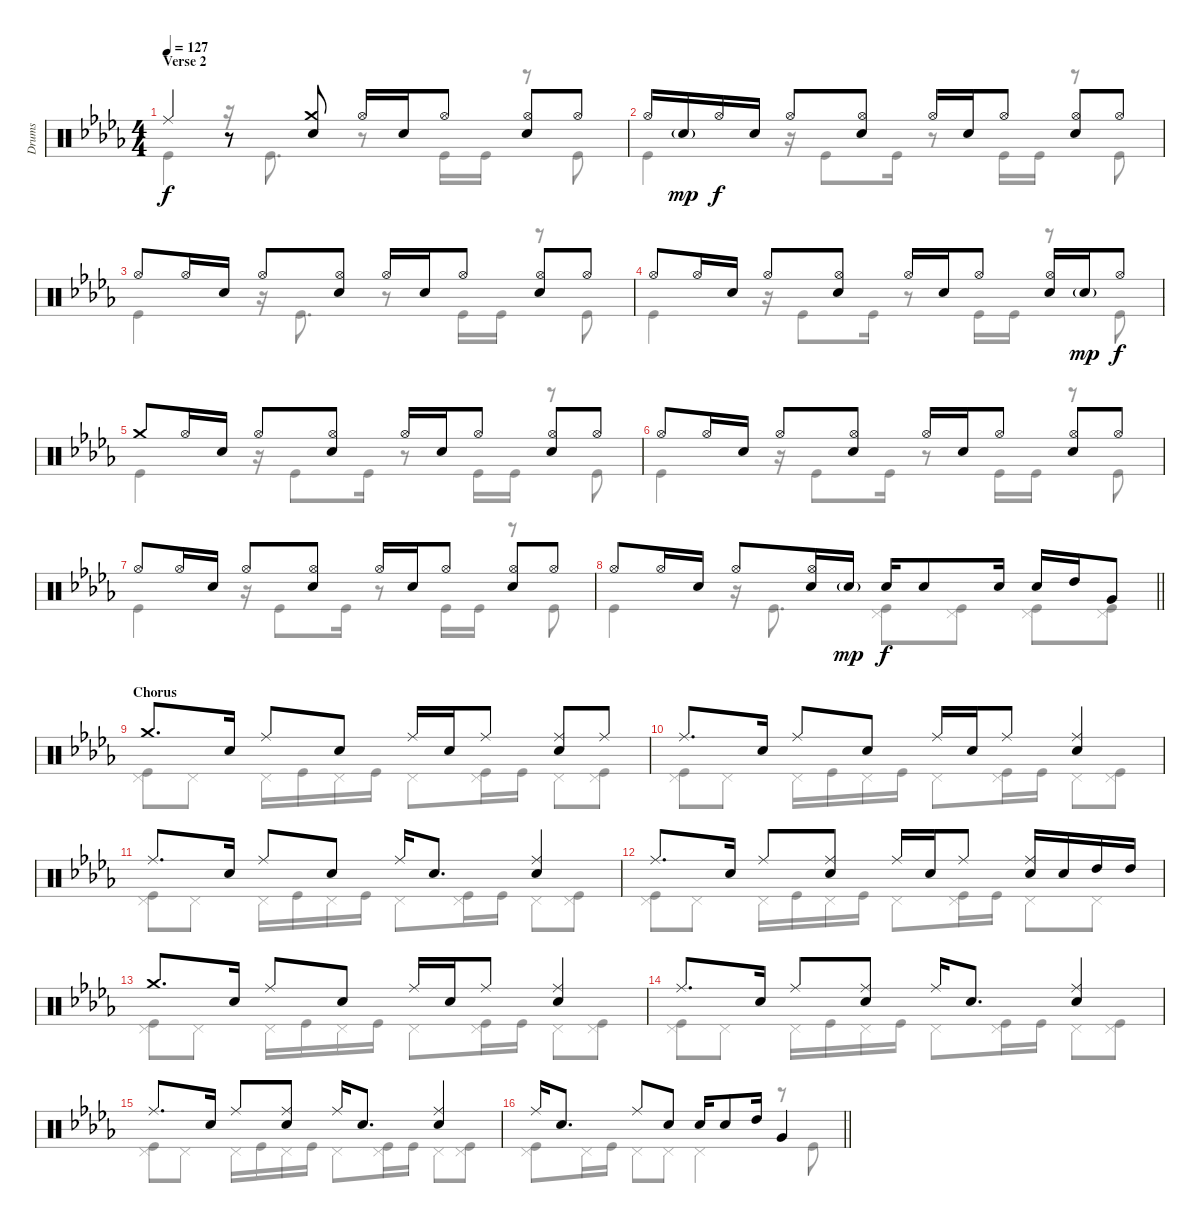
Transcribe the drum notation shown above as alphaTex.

\track ("Drums" "Drums") {instrument percussion}
\staff {score}
\articulation defaults
\voice
\ts (4 4)
\section ("" "Verse 2")
\tempo 127
\clef neutral
\ks bbminor "Ride (middle)".4{dy f}
r.8 ("Crash medium (hit)" "Electric Snare (hit)").8 "Hi-Hat (open)".16 "Electric Snare (hit)".16 "Hi-Hat (open)".8 ("Hi-Hat (open)" "Electric Snare (hit)").8 "Hi-Hat (open)".8 |
"Hi-Hat (open)".16 "Electric Snare (hit)"{g}.16{dy mp} "Hi-Hat (open)".16{dy f} "Electric Snare (hit)".16 "Hi-Hat (open)".8 ("Hi-Hat (open)" "Electric Snare (hit)").8 "Hi-Hat (open)".16 "Electric Snare (hit)".16 "Hi-Hat (open)".8 ("Hi-Hat (open)" "Electric Snare (hit)").8 "Hi-Hat (open)".8 |
"Hi-Hat (open)".8 "Hi-Hat (open)".16 "Electric Snare (hit)".16 "Hi-Hat (open)".8 ("Hi-Hat (open)" "Electric Snare (hit)").8 "Hi-Hat (open)".16 "Electric Snare (hit)".16 "Hi-Hat (open)".8 ("Hi-Hat (open)" "Electric Snare (hit)").8 "Hi-Hat (open)".8 |
"Hi-Hat (open)".8 "Hi-Hat (open)".16 "Electric Snare (hit)".16 "Hi-Hat (open)".8 ("Hi-Hat (open)" "Electric Snare (hit)").8 "Hi-Hat (open)".16 "Electric Snare (hit)".16 "Hi-Hat (open)".8 ("Hi-Hat (open)" "Electric Snare (hit)").16 "Electric Snare (hit)"{g}.16{dy mp} "Hi-Hat (open)".8{dy f} |
"Crash medium (hit)".8 "Hi-Hat (open)".16 "Electric Snare (hit)".16 "Hi-Hat (open)".8 ("Hi-Hat (open)" "Electric Snare (hit)").8 "Hi-Hat (open)".16 "Electric Snare (hit)".16 "Hi-Hat (open)".8 ("Hi-Hat (open)" "Electric Snare (hit)").8 "Hi-Hat (open)".8 |
"Hi-Hat (open)".8 "Hi-Hat (open)".16 "Electric Snare (hit)".16 "Hi-Hat (open)".8 ("Hi-Hat (open)" "Electric Snare (hit)").8 "Hi-Hat (open)".16 "Electric Snare (hit)".16 "Hi-Hat (open)".8 ("Hi-Hat (open)" "Electric Snare (hit)").8 "Hi-Hat (open)".8 |
"Hi-Hat (open)".8 "Hi-Hat (open)".16 "Electric Snare (hit)".16 "Hi-Hat (open)".8 ("Hi-Hat (open)" "Electric Snare (hit)").8 "Hi-Hat (open)".16 "Electric Snare (hit)".16 "Hi-Hat (open)".8 ("Hi-Hat (open)" "Electric Snare (hit)").8 "Hi-Hat (open)".8 |
\barLineRight lightlight "Hi-Hat (open)".8 "Hi-Hat (open)".16 "Electric Snare (hit)".16 "Hi-Hat (open)".8
("Hi-Hat (open)" "Electric Snare (hit)").16 "Electric Snare (hit)"{g}.16{dy mp} "Electric Snare (hit)".16{dy f} "Electric Snare (hit)".8 "Electric Snare (hit)".16 "Electric Snare (hit)".16 "High Tom (hit)".16 "Very Low Tom (hit)".8 |
\section ("" "Chorus")
"Crash medium (hit)".8{d} "Electric Snare (hit)".16 "Ride (middle)".8 "Electric Snare (hit)".8 "Ride (middle)".16 "Electric Snare (hit)".16 "Ride (middle)".8 ("Ride (middle)" "Electric Snare (hit)").8 "Ride (middle)".8 |
"Ride (middle)".8{d} "Electric Snare (hit)".16 "Ride (middle)".8 "Electric Snare (hit)".8 "Ride (middle)".16 "Electric Snare (hit)".16 "Ride (middle)".8 ("Ride (middle)" "Electric Snare (hit)").4 |
"Ride (middle)".8{d} "Electric Snare (hit)".16 "Ride (middle)".8 "Electric Snare (hit)".8 "Ride (middle)".16 "Electric Snare (hit)".8{d} ("Ride (middle)" "Electric Snare (hit)").4 |
"Ride (middle)".8{d} "Electric Snare (hit)".16 "Ride (middle)".8 ("Ride (middle)" "Electric Snare (hit)").8 "Ride (middle)".16 "Electric Snare (hit)".16 "Ride (middle)".8 ("Ride (middle)" "Electric Snare (hit)").16 "Electric Snare (hit)".16 "High Tom (hit)".16 "High Tom (hit)".16 |
"Crash medium (hit)".8{d} "Electric Snare (hit)".16 "Ride (middle)".8 "Electric Snare (hit)".8 "Ride (middle)".16 "Electric Snare (hit)".16 "Ride (middle)".8 ("Ride (middle)" "Electric Snare (hit)").4 |
"Ride (middle)".8{d} "Electric Snare (hit)".16 "Ride (middle)".8 ("Ride (middle)" "Electric Snare (hit)").8 "Ride (middle)".16 "Electric Snare (hit)".8{d} ("Ride (middle)" "Electric Snare (hit)").4 |
"Ride (middle)".8{d} "Electric Snare (hit)".16 "Ride (middle)".8 ("Ride (middle)" "Electric Snare (hit)").8 "Ride (middle)".16 "Electric Snare (hit)".8{d} ("Ride (middle)" "Electric Snare (hit)").4 |
\barLineRight lightlight "Ride (middle)".16 "Electric Snare (hit)".8{d} "Ride (middle)".8 "Electric Snare (hit)".8 "Electric Snare (hit)".16 "Electric Snare (hit)".8 "High Tom (hit)".16 "Very Low Tom (hit)".4
\voice
\clef neutral
\ottava regular
\simile none
\ks bbminor "Kick (hit)".4{dy f}
r.16 "Kick (hit)".8{d} r.8 "Kick (hit)".16 "Kick (hit)".16 r.8 "Kick (hit)".8 |
"Kick (hit)".4 r.16 "Kick (hit)".8 "Kick (hit)".16 r.8 "Kick (hit)".16 "Kick (hit)".16 r.8 "Kick (hit)".8 |
"Kick (hit)".4 r.16 "Kick (hit)".8{d} r.8 "Kick (hit)".16 "Kick (hit)".16 r.8 "Kick (hit)".8 |
"Kick (hit)".4 r.16 "Kick (hit)".8 "Kick (hit)".16 r.8 "Kick (hit)".16 "Kick (hit)".16 r.8 "Kick (hit)".8 |
"Kick (hit)".4 r.16 "Kick (hit)".8 "Kick (hit)".16 r.8 "Kick (hit)".16 "Kick (hit)".16 r.8 "Kick (hit)".8 |
"Kick (hit)".4 r.16 "Kick (hit)".8 "Kick (hit)".16 r.8 "Kick (hit)".16 "Kick (hit)".16 r.8 "Kick (hit)".8 |
"Kick (hit)".4 r.16 "Kick (hit)".8 "Kick (hit)".16 r.8 "Kick (hit)".16 "Kick (hit)".16 r.8 "Kick (hit)".8 |
\barLineRight lightlight "Kick (hit)".4
r.16 "Kick (hit)".8{d} ("Pedal Hi-Hat (hit)" "Kick (hit)").8 ("Pedal Hi-Hat (hit)" "Kick (hit)").8 ("Pedal Hi-Hat (hit)" "Kick (hit)").8 ("Pedal Hi-Hat (hit)" "Kick (hit)").8 |
("Pedal Hi-Hat (hit)" "Kick (hit)").8 "Pedal Hi-Hat (hit)".8 "Pedal Hi-Hat (hit)".16 "Kick (hit)".16 "Pedal Hi-Hat (hit)".16 "Kick (hit)".16 "Pedal Hi-Hat (hit)".8 ("Pedal Hi-Hat (hit)" "Kick (hit)").16 "Kick (hit)".16 "Pedal Hi-Hat (hit)".8 ("Pedal Hi-Hat (hit)" "Kick (hit)").8 |
("Pedal Hi-Hat (hit)" "Kick (hit)").8 "Pedal Hi-Hat (hit)".8 "Pedal Hi-Hat (hit)".16 "Kick (hit)".16 "Pedal Hi-Hat (hit)".16 "Kick (hit)".16 "Pedal Hi-Hat (hit)".8 ("Pedal Hi-Hat (hit)" "Kick (hit)").16 "Kick (hit)".16 "Pedal Hi-Hat (hit)".8 ("Pedal Hi-Hat (hit)" "Kick (hit)").8 |
("Pedal Hi-Hat (hit)" "Kick (hit)").8 "Pedal Hi-Hat (hit)".8 "Pedal Hi-Hat (hit)".16 "Kick (hit)".16 "Pedal Hi-Hat (hit)".16 "Kick (hit)".16 "Pedal Hi-Hat (hit)".8 ("Pedal Hi-Hat (hit)" "Kick (hit)").16 "Kick (hit)".16 "Pedal Hi-Hat (hit)".8 ("Pedal Hi-Hat (hit)" "Kick (hit)").8 |
("Pedal Hi-Hat (hit)" "Kick (hit)").8 "Pedal Hi-Hat (hit)".8 "Pedal Hi-Hat (hit)".16 "Kick (hit)".16 "Pedal Hi-Hat (hit)".16 "Kick (hit)".16 "Pedal Hi-Hat (hit)".8 ("Pedal Hi-Hat (hit)" "Kick (hit)").16 "Kick (hit)".16 "Pedal Hi-Hat (hit)".8 "Pedal Hi-Hat (hit)".8 |
("Pedal Hi-Hat (hit)" "Kick (hit)").8 "Pedal Hi-Hat (hit)".8 "Pedal Hi-Hat (hit)".16 "Kick (hit)".16 "Pedal Hi-Hat (hit)".16 "Kick (hit)".16 "Pedal Hi-Hat (hit)".8 ("Pedal Hi-Hat (hit)" "Kick (hit)").16 "Kick (hit)".16 "Pedal Hi-Hat (hit)".8 ("Pedal Hi-Hat (hit)" "Kick (hit)").8 |
("Pedal Hi-Hat (hit)" "Kick (hit)").8 "Pedal Hi-Hat (hit)".8 "Pedal Hi-Hat (hit)".16 "Kick (hit)".16 "Pedal Hi-Hat (hit)".16 "Kick (hit)".16 "Pedal Hi-Hat (hit)".8 ("Pedal Hi-Hat (hit)" "Kick (hit)").16 "Kick (hit)".16 "Pedal Hi-Hat (hit)".8 ("Pedal Hi-Hat (hit)" "Kick (hit)").8 |
("Pedal Hi-Hat (hit)" "Kick (hit)").8 "Pedal Hi-Hat (hit)".8 "Pedal Hi-Hat (hit)".16 "Kick (hit)".16 "Pedal Hi-Hat (hit)".16 "Kick (hit)".16 "Pedal Hi-Hat (hit)".8 ("Pedal Hi-Hat (hit)" "Kick (hit)").16 "Kick (hit)".16 "Pedal Hi-Hat (hit)".8 ("Pedal Hi-Hat (hit)" "Kick (hit)").8 |
\barLineRight lightlight
("Pedal Hi-Hat (hit)" "Kick (hit)").8 "Pedal Hi-Hat (hit)".16 "Kick (hit)".16 "Pedal Hi-Hat (hit)".8 "Pedal Hi-Hat (hit)".8 "Pedal Hi-Hat (hit)".4 r.8 "Kick (hit)".8
